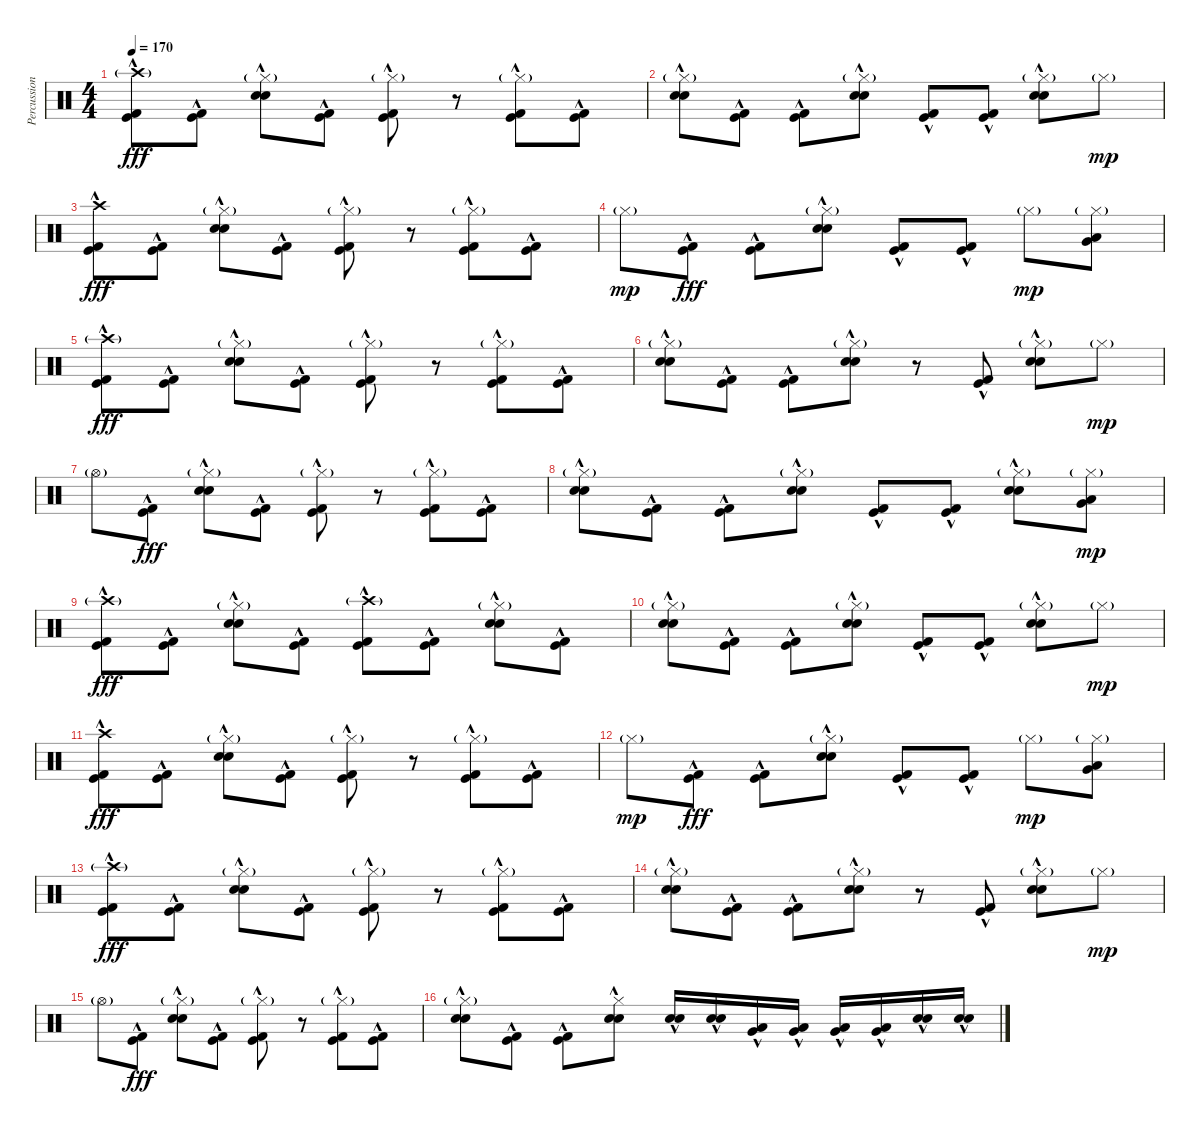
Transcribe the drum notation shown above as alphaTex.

\track ("Percussion" "Percussion") {instrument percussion}
\staff {score}
\articulation defaults
\ts (4 4)
\tempo 170
\clef neutral
\ks c
("Crash high (hit)"{g} "Kick (hit) 2"{hac} "Kick (hit)"{hac}).8{dy fff} ("Kick (hit) 2"{hac} "Kick (hit)"{hac}).8 ("Hi-Hat (closed)"{g} "Snare (hit) 2"{hac} "Electric Snare (hit)"{hac}).8 ("Kick (hit) 2"{hac} "Kick (hit)"{hac}).8 ("Hi-Hat (closed)"{g} "Kick (hit) 2"{hac} "Kick (hit)"{hac}).8 r.8 ("Hi-Hat (closed)"{g} "Kick (hit) 2"{hac} "Kick (hit)"{hac}).8 ("Kick (hit) 2"{hac} "Kick (hit)"{hac}).8 |
("Hi-Hat (closed)"{g} "Snare (hit) 2"{hac} "Electric Snare (hit)"{hac}).8 ("Kick (hit) 2"{hac} "Kick (hit)"{hac}).8 ("Kick (hit) 2"{hac} "Kick (hit)"{hac}).8 ("Hi-Hat (closed)"{g} "Snare (hit) 2"{hac} "Electric Snare (hit)"{hac}).8 ("Kick (hit) 2"{hac} "Kick (hit)"{hac}).8 ("Kick (hit) 2"{hac} "Kick (hit)"{hac}).8 ("Hi-Hat (closed)"{g} "Snare (hit) 2"{hac} "Electric Snare (hit)"{hac}).8 "Hi-Hat (closed)"{g}.8{dy mp} |
("Crash high (hit)" "Kick (hit) 2"{hac} "Kick (hit)"{hac}).8{dy fff} ("Kick (hit) 2"{hac} "Kick (hit)"{hac}).8 ("Hi-Hat (closed)"{g} "Snare (hit) 2"{hac} "Electric Snare (hit)"{hac}).8 ("Kick (hit) 2"{hac} "Kick (hit)"{hac}).8 ("Hi-Hat (closed)"{g} "Kick (hit) 2"{hac} "Kick (hit)"{hac}).8 r.8 ("Hi-Hat (closed)"{g} "Kick (hit) 2"{hac} "Kick (hit)"{hac}).8 ("Kick (hit) 2"{hac} "Kick (hit)"{hac}).8 |
"Hi-Hat (closed)"{g}.8{dy mp} ("Kick (hit) 2"{hac} "Kick (hit)"{hac}).8{dy fff} ("Kick (hit) 2"{hac} "Kick (hit)"{hac}).8 ("Hi-Hat (closed)"{g} "Snare (hit) 2"{hac} "Electric Snare (hit)"{hac}).8 ("Kick (hit) 2"{hac} "Kick (hit)"{hac}).8 ("Kick (hit) 2"{hac} "Kick (hit)"{hac}).8 "Hi-Hat (closed)"{g}.8{dy mp} ("Hi-Hat (closed)"{g} "Low Tom (hit)" "Very Low Tom (hit)").8 |
("Crash high (hit)"{g} "Kick (hit) 2"{hac} "Kick (hit)"{hac}).8{dy fff} ("Kick (hit) 2"{hac} "Kick (hit)"{hac}).8 ("Hi-Hat (closed)"{g} "Snare (hit) 2"{hac} "Electric Snare (hit)"{hac}).8 ("Kick (hit) 2"{hac} "Kick (hit)"{hac}).8 ("Hi-Hat (closed)"{g} "Kick (hit) 2"{hac} "Kick (hit)"{hac}).8 r.8 ("Hi-Hat (closed)"{g} "Kick (hit) 2"{hac} "Kick (hit)"{hac}).8 ("Kick (hit) 2"{hac} "Kick (hit)"{hac}).8 |
("Hi-Hat (closed)"{g} "Snare (hit) 2"{hac} "Electric Snare (hit)"{hac}).8 ("Kick (hit) 2"{hac} "Kick (hit)"{hac}).8 ("Kick (hit) 2"{hac} "Kick (hit)"{hac}).8 ("Hi-Hat (closed)"{g} "Snare (hit) 2"{hac} "Electric Snare (hit)"{hac}).8 r.8 ("Kick (hit) 2"{hac} "Kick (hit)"{hac}).8 ("Hi-Hat (closed)"{g} "Snare (hit) 2"{hac} "Electric Snare (hit)"{hac}).8 "Hi-Hat (closed)"{g}.8{dy mp} |
"Hi-Hat (open)"{g}.8 ("Kick (hit) 2"{hac} "Kick (hit)"{hac}).8{dy fff} ("Hi-Hat (closed)"{g} "Snare (hit) 2"{hac} "Electric Snare (hit)"{hac}).8 ("Kick (hit) 2"{hac} "Kick (hit)"{hac}).8 ("Hi-Hat (closed)"{g} "Kick (hit) 2"{hac} "Kick (hit)"{hac}).8 r.8 ("Hi-Hat (closed)"{g} "Kick (hit) 2"{hac} "Kick (hit)"{hac}).8 ("Kick (hit) 2"{hac} "Kick (hit)"{hac}).8 |
("Hi-Hat (closed)"{g} "Snare (hit) 2"{hac} "Electric Snare (hit)"{hac}).8 ("Kick (hit) 2"{hac} "Kick (hit)"{hac}).8 ("Kick (hit) 2"{hac} "Kick (hit)"{hac}).8 ("Hi-Hat (closed)"{g} "Snare (hit) 2"{hac} "Electric Snare (hit)"{hac}).8 ("Kick (hit) 2"{hac} "Kick (hit)"{hac}).8 ("Kick (hit) 2"{hac} "Kick (hit)"{hac}).8 ("Hi-Hat (closed)"{g} "Snare (hit) 2"{hac} "Electric Snare (hit)"{hac}).8 ("Hi-Hat (closed)"{g} "Low Tom (hit)" "Very Low Tom (hit)").8{dy mp} |
("Crash high (hit)"{g} "Kick (hit) 2"{hac} "Kick (hit)"{hac}).8{dy fff} ("Kick (hit) 2"{hac} "Kick (hit)"{hac}).8 ("Hi-Hat (closed)"{g} "Snare (hit) 2"{hac} "Electric Snare (hit)"{hac}).8 ("Kick (hit) 2"{hac} "Kick (hit)"{hac}).8 ("Crash high (hit)"{g} "Kick (hit) 2"{hac} "Kick (hit)"{hac}).8 ("Kick (hit) 2"{hac} "Kick (hit)"{hac}).8 ("Hi-Hat (closed)"{g} "Snare (hit) 2"{hac} "Electric Snare (hit)"{hac}).8 ("Kick (hit) 2"{hac} "Kick (hit)"{hac}).8 |
("Hi-Hat (closed)"{g} "Snare (hit) 2"{hac} "Electric Snare (hit)"{hac}).8 ("Kick (hit) 2"{hac} "Kick (hit)"{hac}).8 ("Kick (hit) 2"{hac} "Kick (hit)"{hac}).8 ("Hi-Hat (closed)"{g} "Snare (hit) 2"{hac} "Electric Snare (hit)"{hac}).8 ("Kick (hit) 2"{hac} "Kick (hit)"{hac}).8 ("Kick (hit) 2"{hac} "Kick (hit)"{hac}).8 ("Hi-Hat (closed)"{g} "Snare (hit) 2"{hac} "Electric Snare (hit)"{hac}).8 "Hi-Hat (closed)"{g}.8{dy mp} |
("Crash high (hit)" "Kick (hit) 2"{hac} "Kick (hit)"{hac}).8{dy fff} ("Kick (hit) 2"{hac} "Kick (hit)"{hac}).8 ("Hi-Hat (closed)"{g} "Snare (hit) 2"{hac} "Electric Snare (hit)"{hac}).8 ("Kick (hit) 2"{hac} "Kick (hit)"{hac}).8 ("Hi-Hat (closed)"{g} "Kick (hit) 2"{hac} "Kick (hit)"{hac}).8 r.8 ("Hi-Hat (closed)"{g} "Kick (hit) 2"{hac} "Kick (hit)"{hac}).8 ("Kick (hit) 2"{hac} "Kick (hit)"{hac}).8 |
"Hi-Hat (closed)"{g}.8{dy mp} ("Kick (hit) 2"{hac} "Kick (hit)"{hac}).8{dy fff} ("Kick (hit) 2"{hac} "Kick (hit)"{hac}).8 ("Hi-Hat (closed)"{g} "Snare (hit) 2"{hac} "Electric Snare (hit)"{hac}).8 ("Kick (hit) 2"{hac} "Kick (hit)"{hac}).8 ("Kick (hit) 2"{hac} "Kick (hit)"{hac}).8 "Hi-Hat (closed)"{g}.8{dy mp} ("Hi-Hat (closed)"{g} "Low Tom (hit)" "Very Low Tom (hit)").8 |
("Crash high (hit)"{g} "Kick (hit) 2"{hac} "Kick (hit)"{hac}).8{dy fff} ("Kick (hit) 2"{hac} "Kick (hit)"{hac}).8 ("Hi-Hat (closed)"{g} "Snare (hit) 2"{hac} "Electric Snare (hit)"{hac}).8 ("Kick (hit) 2"{hac} "Kick (hit)"{hac}).8 ("Hi-Hat (closed)"{g} "Kick (hit) 2"{hac} "Kick (hit)"{hac}).8 r.8 ("Hi-Hat (closed)"{g} "Kick (hit) 2"{hac} "Kick (hit)"{hac}).8 ("Kick (hit) 2"{hac} "Kick (hit)"{hac}).8 |
("Hi-Hat (closed)"{g} "Snare (hit) 2"{hac} "Electric Snare (hit)"{hac}).8 ("Kick (hit) 2"{hac} "Kick (hit)"{hac}).8 ("Kick (hit) 2"{hac} "Kick (hit)"{hac}).8 ("Hi-Hat (closed)"{g} "Snare (hit) 2"{hac} "Electric Snare (hit)"{hac}).8 r.8 ("Kick (hit) 2"{hac} "Kick (hit)"{hac}).8 ("Hi-Hat (closed)"{g} "Snare (hit) 2"{hac} "Electric Snare (hit)"{hac}).8 "Hi-Hat (closed)"{g}.8{dy mp} |
"Hi-Hat (open)"{g}.8 ("Kick (hit) 2"{hac} "Kick (hit)"{hac}).8{dy fff} ("Hi-Hat (closed)"{g} "Snare (hit) 2"{hac} "Electric Snare (hit)"{hac}).8 ("Kick (hit) 2"{hac} "Kick (hit)"{hac}).8 ("Hi-Hat (closed)"{g} "Kick (hit) 2"{hac} "Kick (hit)"{hac}).8 r.8 ("Hi-Hat (closed)"{g} "Kick (hit) 2"{hac} "Kick (hit)"{hac}).8 ("Kick (hit) 2"{hac} "Kick (hit)"{hac}).8 |
("Hi-Hat (closed)"{g} "Snare (hit) 2"{hac} "Electric Snare (hit)"{hac}).8 ("Kick (hit) 2"{hac} "Kick (hit)"{hac}).8 ("Kick (hit) 2"{hac} "Kick (hit)"{hac}).8 ("Hi-Hat (closed)"{hac} "Snare (hit) 2"{hac} "Electric Snare (hit)"{hac}).8 ("Snare (hit) 2"{hac} "Electric Snare (hit)"{hac}).16 ("Snare (hit) 2"{hac} "Electric Snare (hit)"{hac}).16 ("Very Low Tom (hit)"{hac} "Low Tom (hit)"{hac}).16 ("Very Low Tom (hit)"{hac} "Low Tom (hit)"{hac}).16 ("Low Floor Tom (hit)"{hac} "Very Low Tom (hit)"{hac}).16 ("Low Floor Tom (hit)"{hac} "Very Low Tom (hit)"{hac}).16 ("Snare (hit) 2"{hac} "Electric Snare (hit)"{hac}).16 ("Snare (hit) 2"{hac} "Electric Snare (hit)"{hac}).16
